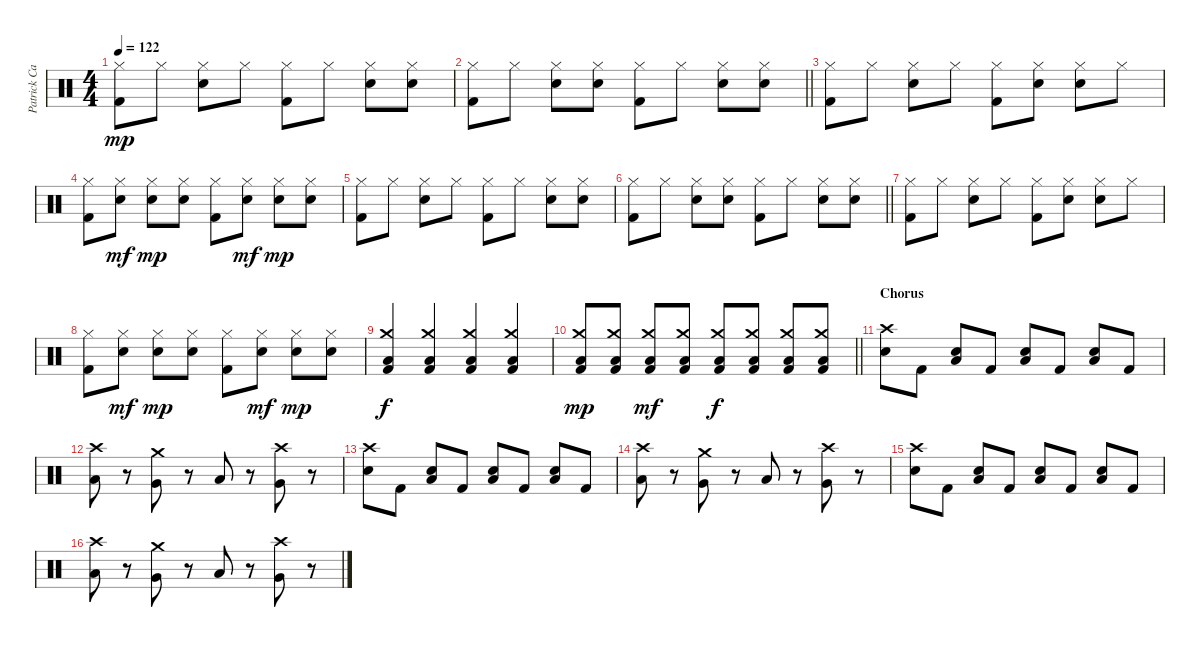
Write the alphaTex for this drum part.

\track ("Patrick Carney" "Patrick Ca") {instrument percussion}
\staff {score}
\articulation defaults
\ts (4 4)
\tempo 122
\clef neutral
\ks c
("Hi-Hat (closed)" "Kick (hit) 2").8{dy mp} "Hi-Hat (closed)".8 ("Hi-Hat (closed)" "Electric Snare (hit)").8 "Hi-Hat (closed)".8 ("Hi-Hat (closed)" "Kick (hit) 2").8 "Hi-Hat (closed)".8 ("Hi-Hat (closed)" "Electric Snare (hit)").8 ("Hi-Hat (closed)" "Electric Snare (hit)").8 |
\barLineRight lightlight
("Hi-Hat (closed)" "Kick (hit) 2").8 "Hi-Hat (closed)".8 ("Hi-Hat (closed)" "Electric Snare (hit)").8 ("Hi-Hat (closed)" "Electric Snare (hit)").8 ("Hi-Hat (closed)" "Kick (hit) 2").8 "Hi-Hat (closed)".8 ("Hi-Hat (closed)" "Electric Snare (hit)").8 ("Hi-Hat (closed)" "Electric Snare (hit)").8 |
("Hi-Hat (closed)" "Kick (hit) 2").8 "Hi-Hat (closed)".8 ("Hi-Hat (closed)" "Electric Snare (hit)").8 "Hi-Hat (closed)".8 ("Hi-Hat (closed)" "Kick (hit) 2").8 ("Hi-Hat (closed)" "Electric Snare (hit)").8 ("Hi-Hat (closed)" "Electric Snare (hit)").8 "Hi-Hat (closed)".8 |
("Hi-Hat (closed)" "Kick (hit) 2").8 ("Hi-Hat (closed)" "Electric Snare (hit)").8{dy mf} ("Hi-Hat (closed)" "Electric Snare (hit)").8{dy mp} ("Hi-Hat (closed)" "Electric Snare (hit)").8 ("Hi-Hat (closed)" "Kick (hit) 2").8 ("Hi-Hat (closed)" "Electric Snare (hit)").8{dy mf} ("Hi-Hat (closed)" "Electric Snare (hit)").8{dy mp} ("Hi-Hat (closed)" "Electric Snare (hit)").8 |
("Hi-Hat (closed)" "Kick (hit) 2").8 "Hi-Hat (closed)".8 ("Hi-Hat (closed)" "Electric Snare (hit)").8 "Hi-Hat (closed)".8 ("Hi-Hat (closed)" "Kick (hit) 2").8 "Hi-Hat (closed)".8 ("Hi-Hat (closed)" "Electric Snare (hit)").8 ("Hi-Hat (closed)" "Electric Snare (hit)").8 |
\barLineRight lightlight
("Hi-Hat (closed)" "Kick (hit) 2").8 "Hi-Hat (closed)".8 ("Hi-Hat (closed)" "Electric Snare (hit)").8 ("Hi-Hat (closed)" "Electric Snare (hit)").8 ("Hi-Hat (closed)" "Kick (hit) 2").8 "Hi-Hat (closed)".8 ("Hi-Hat (closed)" "Electric Snare (hit)").8 ("Hi-Hat (closed)" "Electric Snare (hit)").8 |
("Hi-Hat (closed)" "Kick (hit) 2").8 "Hi-Hat (closed)".8 ("Hi-Hat (closed)" "Electric Snare (hit)").8 "Hi-Hat (closed)".8 ("Hi-Hat (closed)" "Kick (hit) 2").8 ("Hi-Hat (closed)" "Electric Snare (hit)").8 ("Hi-Hat (closed)" "Electric Snare (hit)").8 "Hi-Hat (closed)".8 |
("Hi-Hat (closed)" "Kick (hit) 2").8 ("Hi-Hat (closed)" "Electric Snare (hit)").8{dy mf} ("Hi-Hat (closed)" "Electric Snare (hit)").8{dy mp} ("Hi-Hat (closed)" "Electric Snare (hit)").8 ("Hi-Hat (closed)" "Kick (hit) 2").8 ("Hi-Hat (closed)" "Electric Snare (hit)").8{dy mf} ("Hi-Hat (closed)" "Electric Snare (hit)").8{dy mp} ("Hi-Hat (closed)" "Electric Snare (hit)").8 |
("Crash medium (hit)" "Low Floor Tom (hit)" "Kick (hit) 2").4{dy f} ("Crash medium (hit)" "Low Floor Tom (hit)" "Kick (hit) 2").4 ("Crash medium (hit)" "Low Floor Tom (hit)" "Kick (hit) 2").4 ("Crash medium (hit)" "Low Floor Tom (hit)" "Kick (hit) 2").4 |
\barLineRight lightlight
("Crash medium (hit)" "Low Floor Tom (hit)" "Kick (hit) 2").8{dy mp} ("Crash medium (hit)" "Low Floor Tom (hit)" "Kick (hit) 2").8 ("Crash medium (hit)" "Low Floor Tom (hit)" "Kick (hit) 2").8{dy mf} ("Crash medium (hit)" "Low Floor Tom (hit)" "Kick (hit) 2").8 ("Crash medium (hit)" "Low Floor Tom (hit)" "Kick (hit) 2").8{dy f} ("Crash medium (hit)" "Low Floor Tom (hit)" "Kick (hit) 2").8 ("Crash medium (hit)" "Low Floor Tom (hit)" "Kick (hit) 2").8 ("Crash medium (hit)" "Low Floor Tom (hit)" "Kick (hit) 2").8 |
\section ("" "Chorus")
("Crash high (hit)" "Electric Snare (hit)").8 "Kick (hit) 2".8 ("Electric Snare (hit)" "Low Floor Tom (hit)").8 "Kick (hit) 2".8 ("Electric Snare (hit)" "Low Floor Tom (hit)").8 "Kick (hit) 2".8 ("Electric Snare (hit)" "Low Floor Tom (hit)").8 "Kick (hit) 2".8 |
("Crash high (hit)" "Low Floor Tom (hit)").8 r.8 ("Crash medium (hit)" "Very Low Tom (hit)").8 r.8 "Low Floor Tom (hit)".8 r.8 ("Crash high (hit)" "Very Low Tom (hit)").8 r.8 |
("Crash high (hit)" "Electric Snare (hit)").8 "Kick (hit) 2".8 ("Electric Snare (hit)" "Low Floor Tom (hit)").8 "Kick (hit) 2".8 ("Electric Snare (hit)" "Low Floor Tom (hit)").8 "Kick (hit) 2".8 ("Electric Snare (hit)" "Low Floor Tom (hit)").8 "Kick (hit) 2".8 |
("Crash high (hit)" "Low Floor Tom (hit)").8 r.8 ("Crash medium (hit)" "Very Low Tom (hit)").8 r.8 "Low Floor Tom (hit)".8 r.8 ("Crash high (hit)" "Very Low Tom (hit)").8 r.8 |
("Crash high (hit)" "Electric Snare (hit)").8 "Kick (hit) 2".8 ("Electric Snare (hit)" "Low Floor Tom (hit)").8 "Kick (hit) 2".8 ("Electric Snare (hit)" "Low Floor Tom (hit)").8 "Kick (hit) 2".8 ("Electric Snare (hit)" "Low Floor Tom (hit)").8 "Kick (hit) 2".8 |
("Crash high (hit)" "Low Floor Tom (hit)").8 r.8 ("Crash medium (hit)" "Very Low Tom (hit)").8 r.8 "Low Floor Tom (hit)".8 r.8 ("Crash high (hit)" "Very Low Tom (hit)").8 r.8
